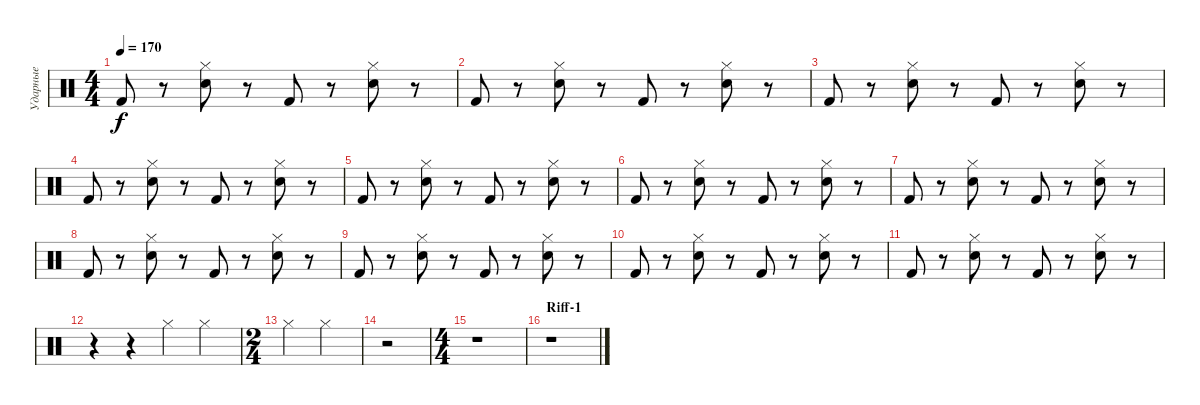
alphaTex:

\track ("Ударные" "Ударные") {instrument percussion}
\staff {score}
\articulation defaults
\ts (4 4)
\tempo 170
\clef neutral
\ks c "Kick (hit) 2".8{dy f}
r.8 ("Hi-Hat (closed)" "Electric Snare (hit)").8 r.8 "Kick (hit) 2".8 r.8 ("Hi-Hat (closed)" "Electric Snare (hit)").8 r.8 |
"Kick (hit) 2".8 r.8 ("Hi-Hat (closed)" "Electric Snare (hit)").8 r.8 "Kick (hit) 2".8 r.8 ("Hi-Hat (closed)" "Electric Snare (hit)").8 r.8 |
"Kick (hit) 2".8 r.8 ("Hi-Hat (closed)" "Electric Snare (hit)").8 r.8 "Kick (hit) 2".8 r.8 ("Hi-Hat (closed)" "Electric Snare (hit)").8 r.8 |
"Kick (hit) 2".8 r.8 ("Hi-Hat (closed)" "Electric Snare (hit)").8 r.8 "Kick (hit) 2".8 r.8 ("Hi-Hat (closed)" "Electric Snare (hit)").8 r.8 |
"Kick (hit) 2".8 r.8 ("Hi-Hat (closed)" "Electric Snare (hit)").8 r.8 "Kick (hit) 2".8 r.8 ("Hi-Hat (closed)" "Electric Snare (hit)").8 r.8 |
"Kick (hit) 2".8 r.8 ("Hi-Hat (closed)" "Electric Snare (hit)").8 r.8 "Kick (hit) 2".8 r.8 ("Hi-Hat (closed)" "Electric Snare (hit)").8 r.8 |
"Kick (hit) 2".8 r.8 ("Hi-Hat (closed)" "Electric Snare (hit)").8 r.8 "Kick (hit) 2".8 r.8 ("Hi-Hat (closed)" "Electric Snare (hit)").8 r.8 |
"Kick (hit) 2".8 r.8 ("Hi-Hat (closed)" "Electric Snare (hit)").8 r.8 "Kick (hit) 2".8 r.8 ("Hi-Hat (closed)" "Electric Snare (hit)").8 r.8 |
"Kick (hit) 2".8 r.8 ("Hi-Hat (closed)" "Electric Snare (hit)").8 r.8 "Kick (hit) 2".8 r.8 ("Hi-Hat (closed)" "Electric Snare (hit)").8 r.8 |
"Kick (hit) 2".8 r.8 ("Hi-Hat (closed)" "Electric Snare (hit)").8 r.8 "Kick (hit) 2".8 r.8 ("Hi-Hat (closed)" "Electric Snare (hit)").8 r.8 |
"Kick (hit) 2".8 r.8 ("Hi-Hat (closed)" "Electric Snare (hit)").8 r.8 "Kick (hit) 2".8 r.8 ("Hi-Hat (closed)" "Electric Snare (hit)").8 r.8 |
r.4 r.4 "Hi-Hat (closed)".4 "Hi-Hat (closed)".4 |
\ts (2 4)
"Hi-Hat (closed)".4 "Hi-Hat (closed)".4 |
r.2 |
\ts (4 4)
r.1 |
\section ("" "Riff-1")
r.1
